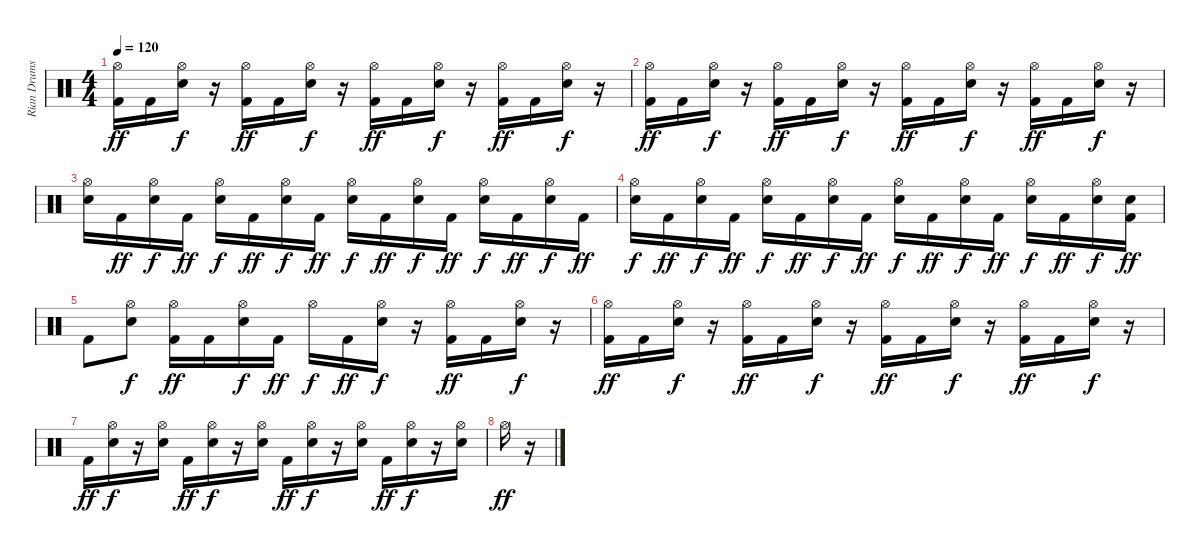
\track ("Rian Drums" "Rian Drums") {instrument percussion}
\staff {score}
\articulation defaults
\ts (4 4)
\tempo 120
\clef neutral
\ks c
("Hi-Hat (open)" "Kick (hit) 2").16{dy ff} "Kick (hit) 2".16 ("Hi-Hat (open)" "Electric Snare (hit)").16{dy f} r.16 ("Hi-Hat (open)" "Kick (hit) 2").16{dy ff} "Kick (hit) 2".16 ("Hi-Hat (open)" "Electric Snare (hit)").16{dy f} r.16 ("Hi-Hat (open)" "Kick (hit) 2").16{dy ff} "Kick (hit) 2".16 ("Hi-Hat (open)" "Electric Snare (hit)").16{dy f} r.16 ("Hi-Hat (open)" "Kick (hit) 2").16{dy ff} "Kick (hit) 2".16 ("Hi-Hat (open)" "Electric Snare (hit)").16{dy f} r.16 |
("Hi-Hat (open)" "Kick (hit) 2").16{dy ff} "Kick (hit) 2".16 ("Hi-Hat (open)" "Electric Snare (hit)").16{dy f} r.16 ("Hi-Hat (open)" "Kick (hit) 2").16{dy ff} "Kick (hit) 2".16 ("Hi-Hat (open)" "Electric Snare (hit)").16{dy f} r.16 ("Hi-Hat (open)" "Kick (hit) 2").16{dy ff} "Kick (hit) 2".16 ("Hi-Hat (open)" "Electric Snare (hit)").16{dy f} r.16 ("Hi-Hat (open)" "Kick (hit) 2").16{dy ff} "Kick (hit) 2".16 ("Hi-Hat (open)" "Electric Snare (hit)").16{dy f} r.16 |
("Hi-Hat (open)" "Electric Snare (hit)").16 "Kick (hit) 2".16{dy ff} ("Hi-Hat (open)" "Electric Snare (hit)").16{dy f} "Kick (hit) 2".16{dy ff} ("Hi-Hat (open)" "Electric Snare (hit)").16{dy f} "Kick (hit) 2".16{dy ff} ("Hi-Hat (open)" "Electric Snare (hit)").16{dy f} "Kick (hit) 2".16{dy ff} ("Hi-Hat (open)" "Electric Snare (hit)").16{dy f} "Kick (hit) 2".16{dy ff} ("Hi-Hat (open)" "Electric Snare (hit)").16{dy f} "Kick (hit) 2".16{dy ff} ("Hi-Hat (open)" "Electric Snare (hit)").16{dy f} "Kick (hit) 2".16{dy ff} ("Hi-Hat (open)" "Electric Snare (hit)").16{dy f} "Kick (hit) 2".16{dy ff} |
("Hi-Hat (open)" "Electric Snare (hit)").16{dy f} "Kick (hit) 2".16{dy ff} ("Hi-Hat (open)" "Electric Snare (hit)").16{dy f} "Kick (hit) 2".16{dy ff} ("Hi-Hat (open)" "Electric Snare (hit)").16{dy f} "Kick (hit) 2".16{dy ff} ("Hi-Hat (open)" "Electric Snare (hit)").16{dy f} "Kick (hit) 2".16{dy ff} ("Hi-Hat (open)" "Electric Snare (hit)").16{dy f} "Kick (hit) 2".16{dy ff} ("Hi-Hat (open)" "Electric Snare (hit)").16{dy f} "Kick (hit) 2".16{dy ff} ("Hi-Hat (open)" "Electric Snare (hit)").16{dy f} "Kick (hit) 2".16{dy ff} ("Hi-Hat (open)" "Electric Snare (hit)").16{dy f} ("Electric Snare (hit)" "Kick (hit) 2").16{dy ff} |
"Kick (hit) 2".8 ("Hi-Hat (open)" "Electric Snare (hit)").8{dy f} ("Hi-Hat (open)" "Kick (hit) 2").16{dy ff} "Kick (hit) 2".16 ("Hi-Hat (open)" "Electric Snare (hit)").16{dy f} "Kick (hit) 2".16{dy ff} "Hi-Hat (open)".16{dy f} "Kick (hit) 2".16{dy ff} ("Hi-Hat (open)" "Electric Snare (hit)").16{dy f} r.16 ("Hi-Hat (open)" "Kick (hit) 2").16{dy ff} "Kick (hit) 2".16 ("Hi-Hat (open)" "Electric Snare (hit)").16{dy f} r.16 |
("Hi-Hat (open)" "Kick (hit) 2").16{dy ff} "Kick (hit) 2".16 ("Hi-Hat (open)" "Electric Snare (hit)").16{dy f} r.16 ("Hi-Hat (open)" "Kick (hit) 2").16{dy ff} "Kick (hit) 2".16 ("Hi-Hat (open)" "Electric Snare (hit)").16{dy f} r.16 ("Hi-Hat (open)" "Kick (hit) 2").16{dy ff} "Kick (hit) 2".16 ("Hi-Hat (open)" "Electric Snare (hit)").16{dy f} r.16 ("Hi-Hat (open)" "Kick (hit) 2").16{dy ff} "Kick (hit) 2".16 ("Hi-Hat (open)" "Electric Snare (hit)").16{dy f} r.16 |
"Kick (hit) 2".16{dy ff} ("Hi-Hat (open)" "Electric Snare (hit)").16{dy f} r.16 ("Hi-Hat (open)" "Electric Snare (hit)").16 "Kick (hit) 2".16{dy ff} ("Hi-Hat (open)" "Electric Snare (hit)").16{dy f} r.16 ("Hi-Hat (open)" "Electric Snare (hit)").16 "Kick (hit) 2".16{dy ff} ("Hi-Hat (open)" "Electric Snare (hit)").16{dy f} r.16 ("Hi-Hat (open)" "Electric Snare (hit)").16 "Kick (hit) 2".16{dy ff} ("Hi-Hat (open)" "Electric Snare (hit)").16{dy f} r.16 ("Hi-Hat (open)" "Electric Snare (hit)").16 |
"Hi-Hat (open)".16{dy ff} r.16
